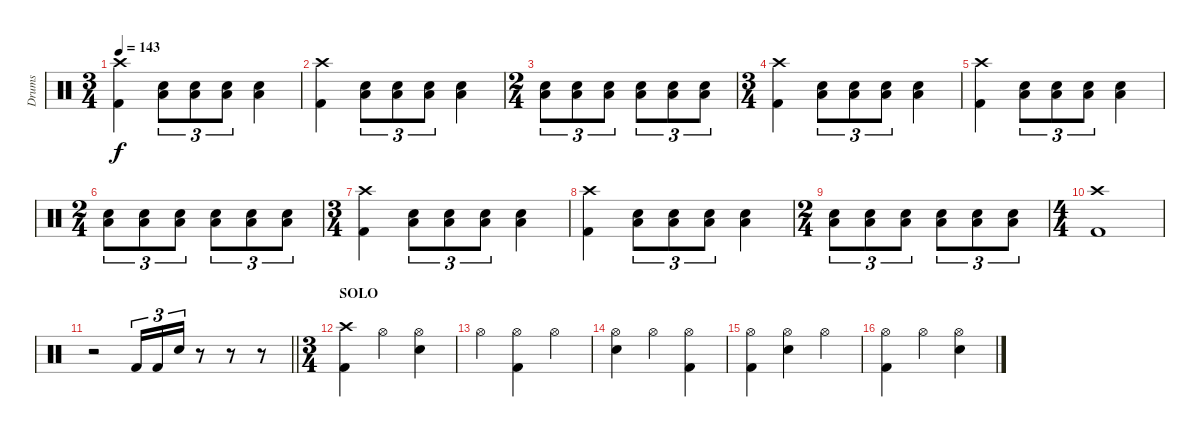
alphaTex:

\track ("Drums" "Drums") {instrument percussion}
\staff {score}
\articulation defaults
\ts (3 4)
\tempo 143
\clef neutral
\ks c
("Crash high (hit)" "Kick (hit) 2").4{dy f} ("Electric Snare (hit)" "Low Floor Tom (hit)").8{tu (3 2)} ("Electric Snare (hit)" "Low Floor Tom (hit)").8{tu (3 2)} ("Electric Snare (hit)" "Low Floor Tom (hit)").8{tu (3 2)} ("Electric Snare (hit)" "Low Floor Tom (hit)").4 |
("Crash high (hit)" "Kick (hit) 2").4 ("Electric Snare (hit)" "Low Floor Tom (hit)").8{tu (3 2)} ("Electric Snare (hit)" "Low Floor Tom (hit)").8{tu (3 2)} ("Electric Snare (hit)" "Low Floor Tom (hit)").8{tu (3 2)} ("Electric Snare (hit)" "Low Floor Tom (hit)").4 |
\ts (2 4)
("Electric Snare (hit)" "Low Floor Tom (hit)").8{tu (3 2)} ("Electric Snare (hit)" "Low Floor Tom (hit)").8{tu (3 2)} ("Electric Snare (hit)" "Low Floor Tom (hit)").8{tu (3 2)} ("Electric Snare (hit)" "Low Floor Tom (hit)").8{tu (3 2)} ("Electric Snare (hit)" "Low Floor Tom (hit)").8{tu (3 2)} ("Electric Snare (hit)" "Low Floor Tom (hit)").8{tu (3 2)} |
\ts (3 4)
("Crash high (hit)" "Kick (hit) 2").4 ("Electric Snare (hit)" "Low Floor Tom (hit)").8{tu (3 2)} ("Electric Snare (hit)" "Low Floor Tom (hit)").8{tu (3 2)} ("Electric Snare (hit)" "Low Floor Tom (hit)").8{tu (3 2)} ("Electric Snare (hit)" "Low Floor Tom (hit)").4 |
("Crash high (hit)" "Kick (hit) 2").4 ("Electric Snare (hit)" "Low Floor Tom (hit)").8{tu (3 2)} ("Electric Snare (hit)" "Low Floor Tom (hit)").8{tu (3 2)} ("Electric Snare (hit)" "Low Floor Tom (hit)").8{tu (3 2)} ("Electric Snare (hit)" "Low Floor Tom (hit)").4 |
\ts (2 4)
("Electric Snare (hit)" "Low Floor Tom (hit)").8{tu (3 2)} ("Electric Snare (hit)" "Low Floor Tom (hit)").8{tu (3 2)} ("Electric Snare (hit)" "Low Floor Tom (hit)").8{tu (3 2)} ("Electric Snare (hit)" "Low Floor Tom (hit)").8{tu (3 2)} ("Electric Snare (hit)" "Low Floor Tom (hit)").8{tu (3 2)} ("Electric Snare (hit)" "Low Floor Tom (hit)").8{tu (3 2)} |
\ts (3 4)
("Crash high (hit)" "Kick (hit) 2").4 ("Electric Snare (hit)" "Low Floor Tom (hit)").8{tu (3 2)} ("Electric Snare (hit)" "Low Floor Tom (hit)").8{tu (3 2)} ("Electric Snare (hit)" "Low Floor Tom (hit)").8{tu (3 2)} ("Electric Snare (hit)" "Low Floor Tom (hit)").4 |
("Crash high (hit)" "Kick (hit) 2").4 ("Electric Snare (hit)" "Low Floor Tom (hit)").8{tu (3 2)} ("Electric Snare (hit)" "Low Floor Tom (hit)").8{tu (3 2)} ("Electric Snare (hit)" "Low Floor Tom (hit)").8{tu (3 2)} ("Electric Snare (hit)" "Low Floor Tom (hit)").4 |
\ts (2 4)
("Electric Snare (hit)" "Low Floor Tom (hit)").8{tu (3 2)} ("Electric Snare (hit)" "Low Floor Tom (hit)").8{tu (3 2)} ("Electric Snare (hit)" "Low Floor Tom (hit)").8{tu (3 2)} ("Electric Snare (hit)" "Low Floor Tom (hit)").8{tu (3 2)} ("Electric Snare (hit)" "Low Floor Tom (hit)").8{tu (3 2)} ("Electric Snare (hit)" "Low Floor Tom (hit)").8{tu (3 2)} |
\ts (4 4)
("Crash high (hit)" "Kick (hit) 2").1 |
\barLineRight lightlight
r.2 "Kick (hit) 2".16{tu (3 2)} "Kick (hit) 2".16{tu (3 2)} "Electric Snare (hit)".16{tu (3 2)} r.8 r.8 r.8 |
\ts (3 4)
\section ("" "SOLO")
("Crash high (hit)" "Kick (hit) 2").4 "Hi-Hat (open)".4 ("Hi-Hat (open)" "Electric Snare (hit)").4 |
"Hi-Hat (open)".4 ("Hi-Hat (open)" "Kick (hit) 2").4 "Hi-Hat (open)".4 |
("Hi-Hat (open)" "Electric Snare (hit)").4 "Hi-Hat (open)".4 ("Hi-Hat (open)" "Kick (hit) 2").4 |
("Hi-Hat (open)" "Kick (hit) 2").4 ("Hi-Hat (open)" "Electric Snare (hit)").4 "Hi-Hat (open)".4 |
("Hi-Hat (open)" "Kick (hit) 2").4 "Hi-Hat (open)".4 ("Hi-Hat (open)" "Electric Snare (hit)").4
